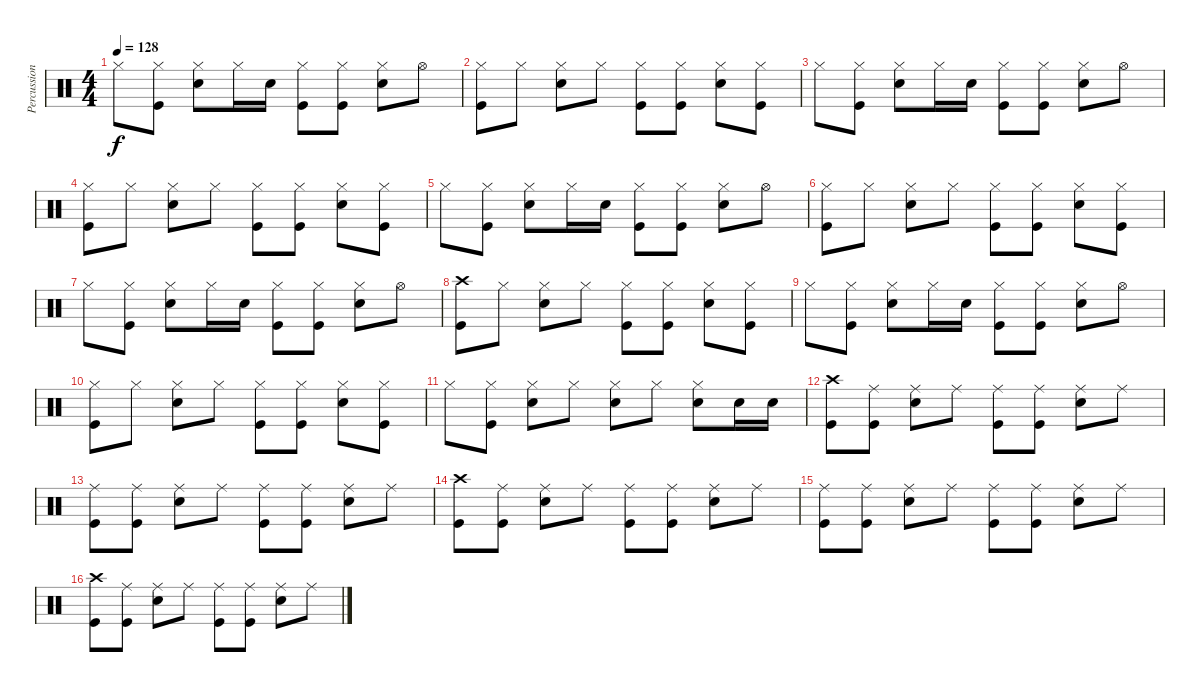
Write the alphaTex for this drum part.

\track ("Percussion" "Percussion") {instrument percussion}
\staff {score}
\articulation defaults
\ts (4 4)
\tempo 128
\clef neutral
\ks c "Hi-Hat (closed)".8{dy f}
("Hi-Hat (closed)" "Kick (hit)").8 ("Hi-Hat (closed)" "Snare (hit) 2").8 "Hi-Hat (closed)".16 "Snare (hit) 2".16 ("Hi-Hat (closed)" "Kick (hit)").8 ("Hi-Hat (closed)" "Kick (hit)").8 ("Hi-Hat (closed)" "Snare (hit) 2").8 "Hi-Hat (open)".8 |
("Hi-Hat (closed)" "Kick (hit)").8 "Hi-Hat (closed)".8 ("Hi-Hat (closed)" "Snare (hit) 2").8 "Hi-Hat (closed)".8 ("Hi-Hat (closed)" "Kick (hit)").8 ("Hi-Hat (closed)" "Kick (hit)").8 ("Hi-Hat (closed)" "Snare (hit) 2").8 ("Hi-Hat (closed)" "Kick (hit)").8 |
"Hi-Hat (closed)".8 ("Hi-Hat (closed)" "Kick (hit)").8 ("Hi-Hat (closed)" "Snare (hit) 2").8 "Hi-Hat (closed)".16 "Snare (hit) 2".16 ("Hi-Hat (closed)" "Kick (hit)").8 ("Hi-Hat (closed)" "Kick (hit)").8 ("Hi-Hat (closed)" "Snare (hit) 2").8 "Hi-Hat (open)".8 |
("Hi-Hat (closed)" "Kick (hit)").8 "Hi-Hat (closed)".8 ("Hi-Hat (closed)" "Snare (hit) 2").8 "Hi-Hat (closed)".8 ("Hi-Hat (closed)" "Kick (hit)").8 ("Hi-Hat (closed)" "Kick (hit)").8 ("Hi-Hat (closed)" "Snare (hit) 2").8 ("Hi-Hat (closed)" "Kick (hit)").8 |
"Hi-Hat (closed)".8 ("Hi-Hat (closed)" "Kick (hit)").8 ("Hi-Hat (closed)" "Snare (hit) 2").8 "Hi-Hat (closed)".16 "Snare (hit) 2".16 ("Hi-Hat (closed)" "Kick (hit)").8 ("Hi-Hat (closed)" "Kick (hit)").8 ("Hi-Hat (closed)" "Snare (hit) 2").8 "Hi-Hat (open)".8 |
("Hi-Hat (closed)" "Kick (hit)").8 "Hi-Hat (closed)".8 ("Hi-Hat (closed)" "Snare (hit) 2").8 "Hi-Hat (closed)".8 ("Hi-Hat (closed)" "Kick (hit)").8 ("Hi-Hat (closed)" "Kick (hit)").8 ("Hi-Hat (closed)" "Snare (hit) 2").8 ("Hi-Hat (closed)" "Kick (hit)").8 |
"Hi-Hat (closed)".8 ("Hi-Hat (closed)" "Kick (hit)").8 ("Hi-Hat (closed)" "Snare (hit) 2").8 "Hi-Hat (closed)".16 "Snare (hit) 2".16 ("Hi-Hat (closed)" "Kick (hit)").8 ("Hi-Hat (closed)" "Kick (hit)").8 ("Hi-Hat (closed)" "Snare (hit) 2").8 "Hi-Hat (open)".8 |
("Crash high (hit)" "Kick (hit)").8 "Hi-Hat (closed)".8 ("Hi-Hat (closed)" "Snare (hit) 2").8 "Hi-Hat (closed)".8 ("Hi-Hat (closed)" "Kick (hit)").8 ("Hi-Hat (closed)" "Kick (hit)").8 ("Hi-Hat (closed)" "Snare (hit) 2").8 ("Hi-Hat (closed)" "Kick (hit)").8 |
"Hi-Hat (closed)".8 ("Hi-Hat (closed)" "Kick (hit)").8 ("Hi-Hat (closed)" "Snare (hit) 2").8 "Hi-Hat (closed)".16 "Snare (hit) 2".16 ("Hi-Hat (closed)" "Kick (hit)").8 ("Hi-Hat (closed)" "Kick (hit)").8 ("Hi-Hat (closed)" "Snare (hit) 2").8 "Hi-Hat (open)".8 |
("Hi-Hat (closed)" "Kick (hit)").8 "Hi-Hat (closed)".8 ("Hi-Hat (closed)" "Snare (hit) 2").8 "Hi-Hat (closed)".8 ("Hi-Hat (closed)" "Kick (hit)").8 ("Hi-Hat (closed)" "Kick (hit)").8 ("Hi-Hat (closed)" "Snare (hit) 2").8 ("Hi-Hat (closed)" "Kick (hit)").8 |
"Hi-Hat (closed)".8 ("Hi-Hat (closed)" "Kick (hit)").8 ("Hi-Hat (closed)" "Snare (hit) 2").8 "Hi-Hat (closed)".8 ("Hi-Hat (closed)" "Snare (hit) 2").8 "Hi-Hat (closed)".8 ("Hi-Hat (closed)" "Snare (hit) 2").8 "Snare (hit) 2".16 "Snare (hit) 2".16 |
("Crash high (hit)" "Kick (hit)").8 ("Ride (middle)" "Kick (hit)").8 ("Ride (middle)" "Snare (hit) 2").8 "Ride (middle)".8 ("Ride (middle)" "Kick (hit)").8 ("Ride (middle)" "Kick (hit)").8 ("Ride (middle)" "Snare (hit) 2").8 "Ride (middle)".8 |
("Ride (middle)" "Kick (hit)").8 ("Ride (middle)" "Kick (hit)").8 ("Ride (middle)" "Snare (hit) 2").8 "Ride (middle)".8 ("Ride (middle)" "Kick (hit)").8 ("Ride (middle)" "Kick (hit)").8 ("Ride (middle)" "Snare (hit) 2").8 "Ride (middle)".8 |
("Crash high (hit)" "Kick (hit)").8 ("Ride (middle)" "Kick (hit)").8 ("Ride (middle)" "Snare (hit) 2").8 "Ride (middle)".8 ("Ride (middle)" "Kick (hit)").8 ("Ride (middle)" "Kick (hit)").8 ("Ride (middle)" "Snare (hit) 2").8 "Ride (middle)".8 |
("Ride (middle)" "Kick (hit)").8 ("Ride (middle)" "Kick (hit)").8 ("Ride (middle)" "Snare (hit) 2").8 "Ride (middle)".8 ("Ride (middle)" "Kick (hit)").8 ("Ride (middle)" "Kick (hit)").8 ("Ride (middle)" "Snare (hit) 2").8 "Ride (middle)".8 |
("Crash high (hit)" "Kick (hit)").8 ("Ride (middle)" "Kick (hit)").8 ("Ride (middle)" "Snare (hit) 2").8 "Ride (middle)".8 ("Ride (middle)" "Kick (hit)").8 ("Ride (middle)" "Kick (hit)").8 ("Ride (middle)" "Snare (hit) 2").8 "Ride (middle)".8
